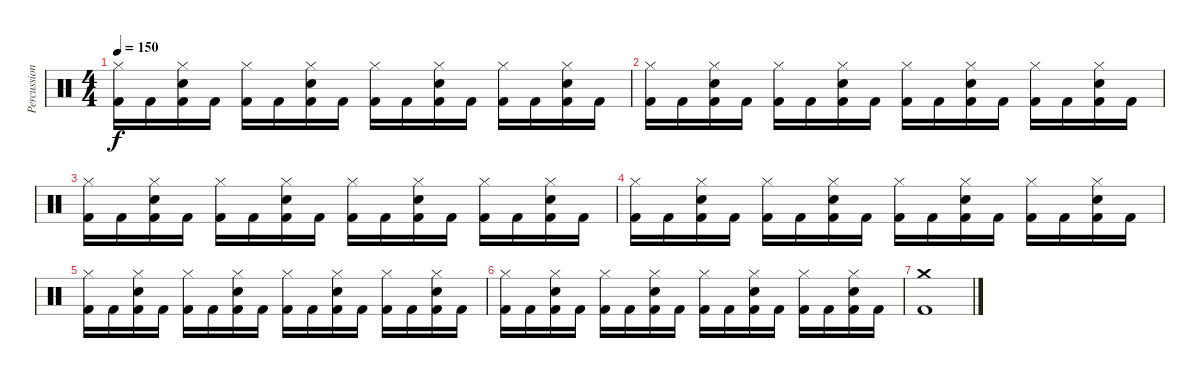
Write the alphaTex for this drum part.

\track ("Percussioni" "Percussion") {instrument percussion}
\staff {score}
\articulation defaults
\ts (4 4)
\tempo 150
\clef neutral
\ks c
("Hi-Hat (closed)" "Kick (hit) 2").16{dy f} "Kick (hit) 2".16 ("Hi-Hat (closed)" "Electric Snare (hit)" "Kick (hit) 2").16 "Kick (hit) 2".16 ("Hi-Hat (closed)" "Kick (hit) 2").16 "Kick (hit) 2".16 ("Hi-Hat (closed)" "Electric Snare (hit)" "Kick (hit) 2").16 "Kick (hit) 2".16 ("Hi-Hat (closed)" "Kick (hit) 2").16 "Kick (hit) 2".16 ("Hi-Hat (closed)" "Electric Snare (hit)" "Kick (hit) 2").16 "Kick (hit) 2".16 ("Hi-Hat (closed)" "Kick (hit) 2").16 "Kick (hit) 2".16 ("Hi-Hat (closed)" "Electric Snare (hit)" "Kick (hit) 2").16 "Kick (hit) 2".16 |
("Hi-Hat (closed)" "Kick (hit) 2").16 "Kick (hit) 2".16 ("Hi-Hat (closed)" "Electric Snare (hit)" "Kick (hit) 2").16 "Kick (hit) 2".16 ("Hi-Hat (closed)" "Kick (hit) 2").16 "Kick (hit) 2".16 ("Hi-Hat (closed)" "Electric Snare (hit)" "Kick (hit) 2").16 "Kick (hit) 2".16 ("Hi-Hat (closed)" "Kick (hit) 2").16 "Kick (hit) 2".16 ("Hi-Hat (closed)" "Electric Snare (hit)" "Kick (hit) 2").16 "Kick (hit) 2".16 ("Hi-Hat (closed)" "Kick (hit) 2").16 "Kick (hit) 2".16 ("Hi-Hat (closed)" "Electric Snare (hit)" "Kick (hit) 2").16 "Kick (hit) 2".16 |
("Hi-Hat (closed)" "Kick (hit) 2").16 "Kick (hit) 2".16 ("Hi-Hat (closed)" "Electric Snare (hit)" "Kick (hit) 2").16 "Kick (hit) 2".16 ("Hi-Hat (closed)" "Kick (hit) 2").16 "Kick (hit) 2".16 ("Hi-Hat (closed)" "Electric Snare (hit)" "Kick (hit) 2").16 "Kick (hit) 2".16 ("Hi-Hat (closed)" "Kick (hit) 2").16 "Kick (hit) 2".16 ("Hi-Hat (closed)" "Electric Snare (hit)" "Kick (hit) 2").16 "Kick (hit) 2".16 ("Hi-Hat (closed)" "Kick (hit) 2").16 "Kick (hit) 2".16 ("Hi-Hat (closed)" "Electric Snare (hit)" "Kick (hit) 2").16 "Kick (hit) 2".16 |
("Hi-Hat (closed)" "Kick (hit) 2").16 "Kick (hit) 2".16 ("Hi-Hat (closed)" "Electric Snare (hit)" "Kick (hit) 2").16 "Kick (hit) 2".16 ("Hi-Hat (closed)" "Kick (hit) 2").16 "Kick (hit) 2".16 ("Hi-Hat (closed)" "Electric Snare (hit)" "Kick (hit) 2").16 "Kick (hit) 2".16 ("Hi-Hat (closed)" "Kick (hit) 2").16 "Kick (hit) 2".16 ("Hi-Hat (closed)" "Electric Snare (hit)" "Kick (hit) 2").16 "Kick (hit) 2".16 ("Hi-Hat (closed)" "Kick (hit) 2").16 "Kick (hit) 2".16 ("Hi-Hat (closed)" "Electric Snare (hit)" "Kick (hit) 2").16 "Kick (hit) 2".16 |
("Hi-Hat (closed)" "Kick (hit) 2").16 "Kick (hit) 2".16 ("Hi-Hat (closed)" "Electric Snare (hit)" "Kick (hit) 2").16 "Kick (hit) 2".16 ("Hi-Hat (closed)" "Kick (hit) 2").16 "Kick (hit) 2".16 ("Hi-Hat (closed)" "Electric Snare (hit)" "Kick (hit) 2").16 "Kick (hit) 2".16 ("Hi-Hat (closed)" "Kick (hit) 2").16 "Kick (hit) 2".16 ("Hi-Hat (closed)" "Electric Snare (hit)" "Kick (hit) 2").16 "Kick (hit) 2".16 ("Hi-Hat (closed)" "Kick (hit) 2").16 "Kick (hit) 2".16 ("Hi-Hat (closed)" "Electric Snare (hit)" "Kick (hit) 2").16 "Kick (hit) 2".16 |
("Hi-Hat (closed)" "Kick (hit) 2").16 "Kick (hit) 2".16 ("Hi-Hat (closed)" "Electric Snare (hit)" "Kick (hit) 2").16 "Kick (hit) 2".16 ("Hi-Hat (closed)" "Kick (hit) 2").16 "Kick (hit) 2".16 ("Hi-Hat (closed)" "Electric Snare (hit)" "Kick (hit) 2").16 "Kick (hit) 2".16 ("Hi-Hat (closed)" "Kick (hit) 2").16 "Kick (hit) 2".16 ("Hi-Hat (closed)" "Electric Snare (hit)" "Kick (hit) 2").16 "Kick (hit) 2".16 ("Hi-Hat (closed)" "Kick (hit) 2").16 "Kick (hit) 2".16 ("Hi-Hat (closed)" "Electric Snare (hit)" "Kick (hit) 2").16 "Kick (hit) 2".16 |
("Crash medium (hit)" "Kick (hit) 2").1
